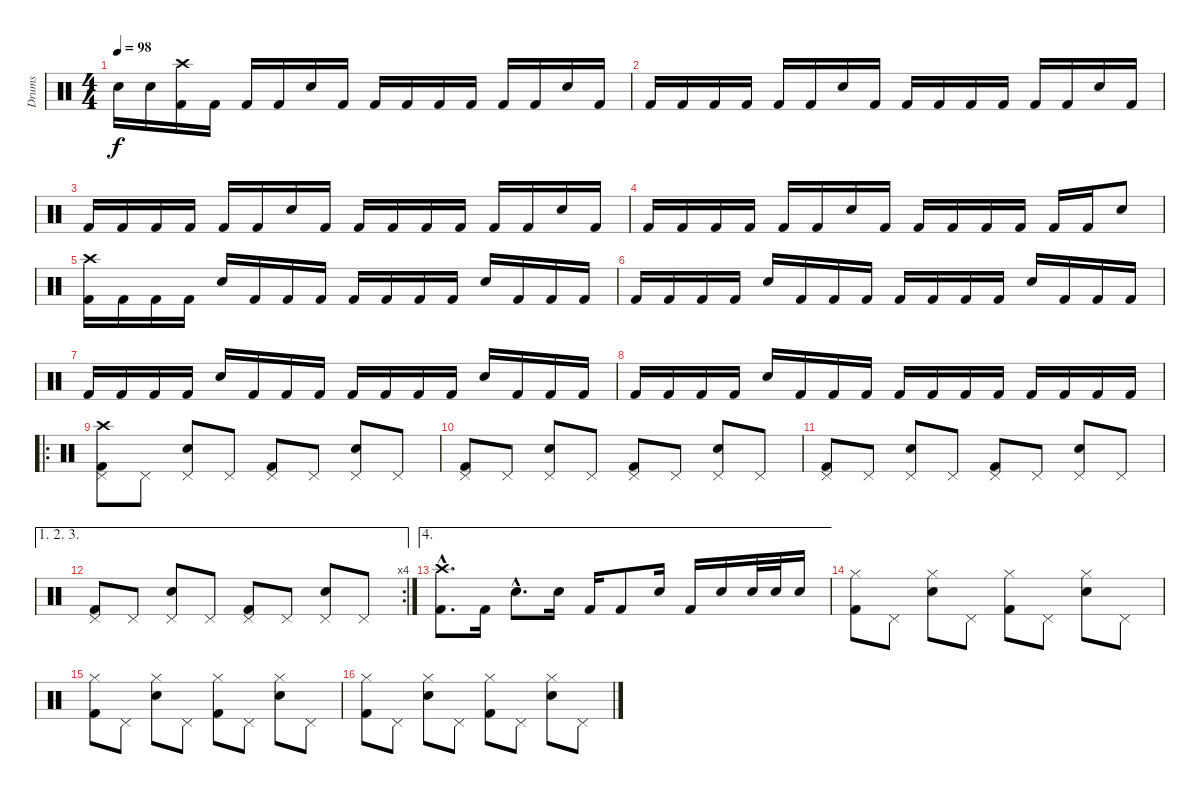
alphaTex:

\track ("Drums" "Drums") {instrument percussion}
\staff {score}
\articulation defaults
\ts (4 4)
\tempo 98
\clef neutral
\ks c "Snare (hit) 2".16{dy f} "Snare (hit) 2".16
("Crash high (hit)" "Kick (hit) 2").16 "Kick (hit) 2".16 "Kick (hit) 2".16 "Kick (hit) 2".16 "Snare (hit) 2".16 "Kick (hit) 2".16 "Kick (hit) 2".16 "Kick (hit) 2".16 "Kick (hit) 2".16 "Kick (hit) 2".16 "Kick (hit) 2".16 "Kick (hit) 2".16 "Snare (hit) 2".16 "Kick (hit) 2".16 |
"Kick (hit) 2".16 "Kick (hit) 2".16 "Kick (hit) 2".16 "Kick (hit) 2".16 "Kick (hit) 2".16 "Kick (hit) 2".16 "Snare (hit) 2".16 "Kick (hit) 2".16 "Kick (hit) 2".16 "Kick (hit) 2".16 "Kick (hit) 2".16 "Kick (hit) 2".16 "Kick (hit) 2".16 "Kick (hit) 2".16 "Snare (hit) 2".16 "Kick (hit) 2".16 |
"Kick (hit) 2".16 "Kick (hit) 2".16 "Kick (hit) 2".16 "Kick (hit) 2".16 "Kick (hit) 2".16 "Kick (hit) 2".16 "Snare (hit) 2".16 "Kick (hit) 2".16 "Kick (hit) 2".16 "Kick (hit) 2".16 "Kick (hit) 2".16 "Kick (hit) 2".16 "Kick (hit) 2".16 "Kick (hit) 2".16 "Snare (hit) 2".16 "Kick (hit) 2".16 |
"Kick (hit) 2".16 "Kick (hit) 2".16 "Kick (hit) 2".16 "Kick (hit) 2".16 "Kick (hit) 2".16 "Kick (hit) 2".16 "Snare (hit) 2".16 "Kick (hit) 2".16 "Kick (hit) 2".16 "Kick (hit) 2".16 "Kick (hit) 2".16 "Kick (hit) 2".16 "Kick (hit) 2".16 "Kick (hit) 2".16 "Snare (hit) 2".8 |
("Crash high (hit)" "Kick (hit) 2").16 "Kick (hit) 2".16 "Kick (hit) 2".16 "Kick (hit) 2".16 "Snare (hit) 2".16 "Kick (hit) 2".16 "Kick (hit) 2".16 "Kick (hit) 2".16 "Kick (hit) 2".16 "Kick (hit) 2".16 "Kick (hit) 2".16 "Kick (hit) 2".16 "Snare (hit) 2".16 "Kick (hit) 2".16 "Kick (hit) 2".16 "Kick (hit) 2".16 |
"Kick (hit) 2".16 "Kick (hit) 2".16 "Kick (hit) 2".16 "Kick (hit) 2".16 "Snare (hit) 2".16 "Kick (hit) 2".16 "Kick (hit) 2".16 "Kick (hit) 2".16 "Kick (hit) 2".16 "Kick (hit) 2".16 "Kick (hit) 2".16 "Kick (hit) 2".16 "Snare (hit) 2".16 "Kick (hit) 2".16 "Kick (hit) 2".16 "Kick (hit) 2".16 |
"Kick (hit) 2".16 "Kick (hit) 2".16 "Kick (hit) 2".16 "Kick (hit) 2".16 "Snare (hit) 2".16 "Kick (hit) 2".16 "Kick (hit) 2".16 "Kick (hit) 2".16 "Kick (hit) 2".16 "Kick (hit) 2".16 "Kick (hit) 2".16 "Kick (hit) 2".16 "Snare (hit) 2".16 "Kick (hit) 2".16 "Kick (hit) 2".16 "Kick (hit) 2".16 |
"Kick (hit) 2".16 "Kick (hit) 2".16 "Kick (hit) 2".16 "Kick (hit) 2".16 "Snare (hit) 2".16 "Kick (hit) 2".16 "Kick (hit) 2".16 "Kick (hit) 2".16 "Kick (hit) 2".16 "Kick (hit) 2".16 "Kick (hit) 2".16 "Kick (hit) 2".16 "Kick (hit) 2".16 "Kick (hit) 2".16 "Kick (hit) 2".16 "Kick (hit) 2".16 |
\ro
("Crash high (hit)" "Pedal Hi-Hat (hit)" "Kick (hit) 2").8 "Pedal Hi-Hat (hit)".8 ("Pedal Hi-Hat (hit)" "Snare (hit) 2").8 "Pedal Hi-Hat (hit)".8 ("Pedal Hi-Hat (hit)" "Kick (hit) 2").8 "Pedal Hi-Hat (hit)".8 ("Pedal Hi-Hat (hit)" "Snare (hit) 2").8 "Pedal Hi-Hat (hit)".8 |
("Pedal Hi-Hat (hit)" "Kick (hit) 2").8 "Pedal Hi-Hat (hit)".8 ("Pedal Hi-Hat (hit)" "Snare (hit) 2").8 "Pedal Hi-Hat (hit)".8 ("Pedal Hi-Hat (hit)" "Kick (hit) 2").8 "Pedal Hi-Hat (hit)".8 ("Pedal Hi-Hat (hit)" "Snare (hit) 2").8 "Pedal Hi-Hat (hit)".8 |
("Pedal Hi-Hat (hit)" "Kick (hit) 2").8 "Pedal Hi-Hat (hit)".8 ("Pedal Hi-Hat (hit)" "Snare (hit) 2").8 "Pedal Hi-Hat (hit)".8 ("Pedal Hi-Hat (hit)" "Kick (hit) 2").8 "Pedal Hi-Hat (hit)".8 ("Pedal Hi-Hat (hit)" "Snare (hit) 2").8 "Pedal Hi-Hat (hit)".8 |
\ae (1 2 3)
\rc 4
("Pedal Hi-Hat (hit)" "Kick (hit) 2").8 "Pedal Hi-Hat (hit)".8 ("Pedal Hi-Hat (hit)" "Snare (hit) 2").8 "Pedal Hi-Hat (hit)".8 ("Pedal Hi-Hat (hit)" "Kick (hit) 2").8 "Pedal Hi-Hat (hit)".8 ("Pedal Hi-Hat (hit)" "Snare (hit) 2").8 "Pedal Hi-Hat (hit)".8 |
\ae 4
("Crash high (hit)"{hac} "Kick (hit) 2"{hac}).8{d} "Kick (hit) 2".16 "Snare (hit) 2"{hac}.8{d} "Snare (hit) 2".16 "Kick (hit) 2".16 "Kick (hit) 2".8 "Snare (hit) 2".16 "Kick (hit) 2".16 "Snare (hit) 2".16 "Snare (hit) 2".32 "Snare (hit) 2".32 "Snare (hit) 2".16 |
("Hi-Hat (closed)" "Kick (hit) 2").8 "Pedal Hi-Hat (hit)".8 ("Hi-Hat (closed)" "Snare (hit) 2").8 "Pedal Hi-Hat (hit)".8 ("Hi-Hat (closed)" "Kick (hit) 2").8 "Pedal Hi-Hat (hit)".8 ("Hi-Hat (closed)" "Snare (hit) 2").8 "Pedal Hi-Hat (hit)".8 |
("Hi-Hat (closed)" "Kick (hit) 2").8 "Pedal Hi-Hat (hit)".8 ("Hi-Hat (closed)" "Snare (hit) 2").8 "Pedal Hi-Hat (hit)".8 ("Hi-Hat (closed)" "Kick (hit) 2").8 "Pedal Hi-Hat (hit)".8 ("Hi-Hat (closed)" "Snare (hit) 2").8 "Pedal Hi-Hat (hit)".8 |
("Hi-Hat (closed)" "Kick (hit) 2").8 "Pedal Hi-Hat (hit)".8 ("Hi-Hat (closed)" "Snare (hit) 2").8 "Pedal Hi-Hat (hit)".8 ("Hi-Hat (closed)" "Kick (hit) 2").8 "Pedal Hi-Hat (hit)".8 ("Hi-Hat (closed)" "Snare (hit) 2").8 "Pedal Hi-Hat (hit)".8
